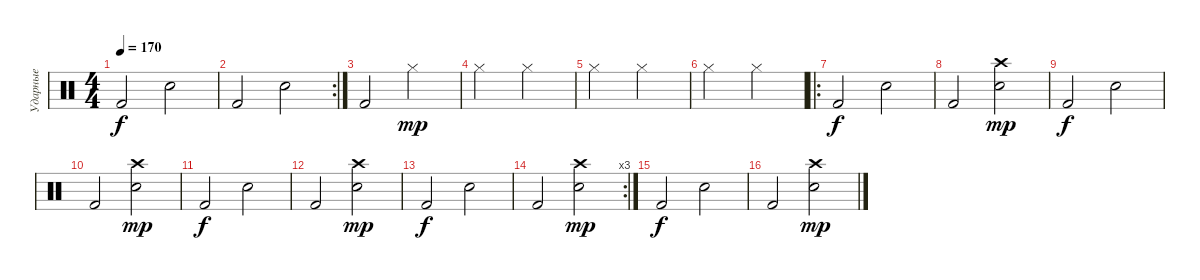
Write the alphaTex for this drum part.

\track ("Ударные" "Ударные") {instrument percussion}
\staff {score}
\articulation defaults
\ts (4 4)
\tempo 170
\clef neutral
\ks c "Kick (hit) 2".2{dy f} "Electric Snare (hit)".2
|
\rc 2 "Kick (hit) 2".2 "Electric Snare (hit)".2
|
"Kick (hit) 2".2 "Hi-Hat (closed)".2{dy mp} |
"Hi-Hat (closed)".2 "Hi-Hat (closed)".2 |
"Hi-Hat (closed)".2 "Hi-Hat (closed)".2 |
"Hi-Hat (closed)".2 "Hi-Hat (closed)".2 |
\ro "Kick (hit) 2".2{dy f} "Electric Snare (hit)".2
|
"Kick (hit) 2".2 ("Electric Snare (hit)" "Crash high (hit)").2{dy mp} |
"Kick (hit) 2".2{dy f} "Electric Snare (hit)".2 |
"Kick (hit) 2".2 ("Electric Snare (hit)" "Crash high (hit)").2{dy mp} |
"Kick (hit) 2".2{dy f} "Electric Snare (hit)".2 |
"Kick (hit) 2".2 ("Electric Snare (hit)" "Crash high (hit)").2{dy mp} |
"Kick (hit) 2".2{dy f} "Electric Snare (hit)".2 |
\rc 3 "Kick (hit) 2".2
("Electric Snare (hit)" "Crash high (hit)").2{dy mp} |
"Kick (hit) 2".2{dy f} "Electric Snare (hit)".2 |
"Kick (hit) 2".2 ("Electric Snare (hit)" "Crash high (hit)").2{dy mp}
